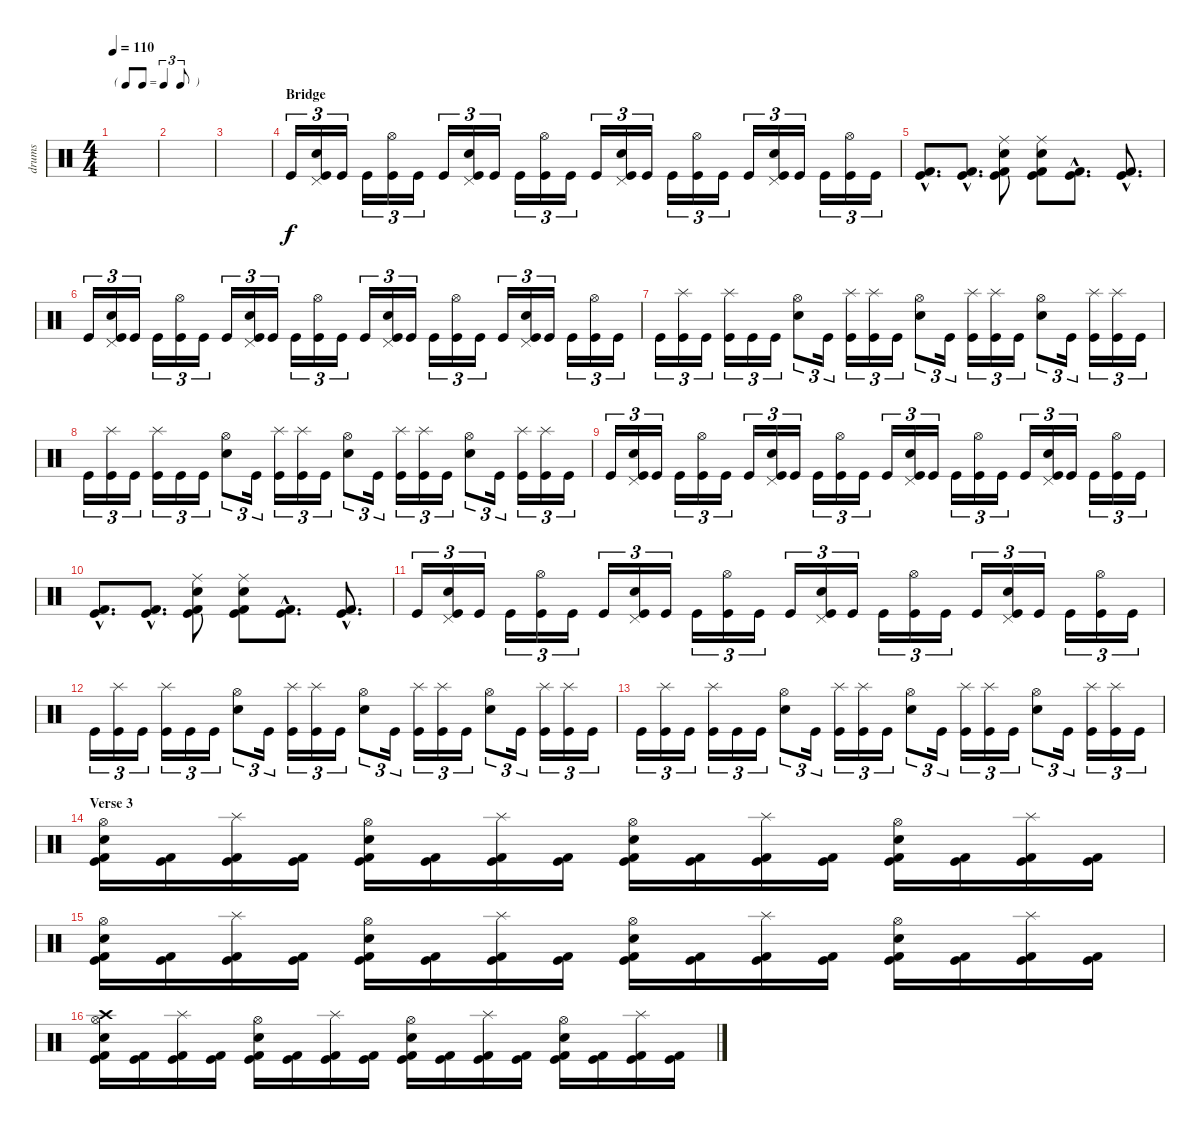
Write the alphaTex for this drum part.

\track ("drums" "drums") {instrument percussion}
\staff {score}
\articulation defaults
\ts (4 4)
\tf triplet8th
\tempo 110
\clef neutral
\ks c
|
|
|
\section ("" "Bridge")
"Kick (hit)".16{tu (3 2)} ("Pedal Hi-Hat (hit)" "Electric Snare (hit)" "Kick (hit)").16{tu (3 2)} "Kick (hit)".16{tu (3 2)} "Kick (hit)".16{tu (3 2)} ("Hi-Hat (open)" "Kick (hit)").16{tu (3 2)} "Kick (hit)".16{tu (3 2)} "Kick (hit)".16{tu (3 2)} ("Pedal Hi-Hat (hit)" "Electric Snare (hit)" "Kick (hit)").16{tu (3 2)} "Kick (hit)".16{tu (3 2)} "Kick (hit)".16{tu (3 2)} ("Hi-Hat (open)" "Kick (hit)").16{tu (3 2)} "Kick (hit)".16{tu (3 2)} "Kick (hit)".16{tu (3 2)} ("Pedal Hi-Hat (hit)" "Electric Snare (hit)" "Kick (hit)").16{tu (3 2)} "Kick (hit)".16{tu (3 2)} "Kick (hit)".16{tu (3 2)} ("Hi-Hat (open)" "Kick (hit)").16{tu (3 2)} "Kick (hit)".16{tu (3 2)} "Kick (hit)".16{tu (3 2)} ("Pedal Hi-Hat (hit)" "Electric Snare (hit)" "Kick (hit)").16{tu (3 2)} "Kick (hit)".16{tu (3 2)} "Kick (hit)".16{tu (3 2)} ("Hi-Hat (open)" "Kick (hit)").16{tu (3 2)} "Kick (hit)".16{tu (3 2)} |
("Kick (hit) 2"{hac} "Kick (hit)"{hac}).8{d} ("Kick (hit) 2"{hac} "Kick (hit)"{hac}).8{d} ("Ride (middle)" "Electric Snare (hit)" "Kick (hit)" "Kick (hit) 2").8 ("Ride (middle)" "Electric Snare (hit)" "Kick (hit)" "Kick (hit) 2").8 ("Kick (hit) 2"{hac} "Kick (hit)"{hac}).8{d} ("Kick (hit) 2"{hac} "Kick (hit)"{hac}).8{d} |
"Kick (hit)".16{tu (3 2)} ("Pedal Hi-Hat (hit)" "Electric Snare (hit)" "Kick (hit)").16{tu (3 2)} "Kick (hit)".16{tu (3 2)} "Kick (hit)".16{tu (3 2)} ("Hi-Hat (open)" "Kick (hit)").16{tu (3 2)} "Kick (hit)".16{tu (3 2)} "Kick (hit)".16{tu (3 2)} ("Pedal Hi-Hat (hit)" "Electric Snare (hit)" "Kick (hit)").16{tu (3 2)} "Kick (hit)".16{tu (3 2)} "Kick (hit)".16{tu (3 2)} ("Hi-Hat (open)" "Kick (hit)").16{tu (3 2)} "Kick (hit)".16{tu (3 2)} "Kick (hit)".16{tu (3 2)} ("Pedal Hi-Hat (hit)" "Electric Snare (hit)" "Kick (hit)").16{tu (3 2)} "Kick (hit)".16{tu (3 2)} "Kick (hit)".16{tu (3 2)} ("Hi-Hat (open)" "Kick (hit)").16{tu (3 2)} "Kick (hit)".16{tu (3 2)} "Kick (hit)".16{tu (3 2)} ("Pedal Hi-Hat (hit)" "Electric Snare (hit)" "Kick (hit)").16{tu (3 2)} "Kick (hit)".16{tu (3 2)} "Kick (hit)".16{tu (3 2)} ("Hi-Hat (open)" "Kick (hit)").16{tu (3 2)} "Kick (hit)".16{tu (3 2)} |
"Kick (hit)".16{tu (3 2)} ("Splash (hit)" "Kick (hit)").16{tu (3 2)} "Kick (hit)".16{tu (3 2)} ("Splash (hit)" "Kick (hit)").16{tu (3 2)} "Kick (hit)".16{tu (3 2)} "Kick (hit)".16{tu (3 2)} ("Hi-Hat (open)" "Electric Snare (hit)").8{tu (3 2)} "Kick (hit)".16{tu (3 2)} ("Splash (hit)" "Kick (hit)").16{tu (3 2)} ("Splash (hit)" "Kick (hit)").16{tu (3 2)} "Kick (hit)".16{tu (3 2)} ("Hi-Hat (open)" "Electric Snare (hit)").8{tu (3 2)} "Kick (hit)".16{tu (3 2)} ("Splash (hit)" "Kick (hit)").16{tu (3 2)} ("Splash (hit)" "Kick (hit)").16{tu (3 2)} "Kick (hit)".16{tu (3 2)} ("Hi-Hat (open)" "Electric Snare (hit)").8{tu (3 2)} "Kick (hit)".16{tu (3 2)} ("Splash (hit)" "Kick (hit)").16{tu (3 2)} ("Splash (hit)" "Kick (hit)").16{tu (3 2)} "Kick (hit)".16{tu (3 2)} |
"Kick (hit)".16{tu (3 2)} ("Splash (hit)" "Kick (hit)").16{tu (3 2)} "Kick (hit)".16{tu (3 2)} ("Splash (hit)" "Kick (hit)").16{tu (3 2)} "Kick (hit)".16{tu (3 2)} "Kick (hit)".16{tu (3 2)} ("Hi-Hat (open)" "Electric Snare (hit)").8{tu (3 2)} "Kick (hit)".16{tu (3 2)} ("Splash (hit)" "Kick (hit)").16{tu (3 2)} ("Splash (hit)" "Kick (hit)").16{tu (3 2)} "Kick (hit)".16{tu (3 2)} ("Hi-Hat (open)" "Electric Snare (hit)").8{tu (3 2)} "Kick (hit)".16{tu (3 2)} ("Splash (hit)" "Kick (hit)").16{tu (3 2)} ("Splash (hit)" "Kick (hit)").16{tu (3 2)} "Kick (hit)".16{tu (3 2)} ("Hi-Hat (open)" "Electric Snare (hit)").8{tu (3 2)} "Kick (hit)".16{tu (3 2)} ("Splash (hit)" "Kick (hit)").16{tu (3 2)} ("Splash (hit)" "Kick (hit)").16{tu (3 2)} "Kick (hit)".16{tu (3 2)} |
"Kick (hit)".16{tu (3 2)} ("Pedal Hi-Hat (hit)" "Electric Snare (hit)" "Kick (hit)").16{tu (3 2)} "Kick (hit)".16{tu (3 2)} "Kick (hit)".16{tu (3 2)} ("Hi-Hat (open)" "Kick (hit)").16{tu (3 2)} "Kick (hit)".16{tu (3 2)} "Kick (hit)".16{tu (3 2)} ("Pedal Hi-Hat (hit)" "Electric Snare (hit)" "Kick (hit)").16{tu (3 2)} "Kick (hit)".16{tu (3 2)} "Kick (hit)".16{tu (3 2)} ("Hi-Hat (open)" "Kick (hit)").16{tu (3 2)} "Kick (hit)".16{tu (3 2)} "Kick (hit)".16{tu (3 2)} ("Pedal Hi-Hat (hit)" "Electric Snare (hit)" "Kick (hit)").16{tu (3 2)} "Kick (hit)".16{tu (3 2)} "Kick (hit)".16{tu (3 2)} ("Hi-Hat (open)" "Kick (hit)").16{tu (3 2)} "Kick (hit)".16{tu (3 2)} "Kick (hit)".16{tu (3 2)} ("Pedal Hi-Hat (hit)" "Electric Snare (hit)" "Kick (hit)").16{tu (3 2)} "Kick (hit)".16{tu (3 2)} "Kick (hit)".16{tu (3 2)} ("Hi-Hat (open)" "Kick (hit)").16{tu (3 2)} "Kick (hit)".16{tu (3 2)} |
("Kick (hit) 2"{hac} "Kick (hit)"{hac}).8{d} ("Kick (hit) 2"{hac} "Kick (hit)"{hac}).8{d} ("Ride (middle)" "Electric Snare (hit)" "Kick (hit)" "Kick (hit) 2").8 ("Ride (middle)" "Electric Snare (hit)" "Kick (hit)" "Kick (hit) 2").8 ("Kick (hit) 2"{hac} "Kick (hit)"{hac}).8{d} ("Kick (hit) 2"{hac} "Kick (hit)"{hac}).8{d} |
"Kick (hit)".16{tu (3 2)} ("Pedal Hi-Hat (hit)" "Electric Snare (hit)" "Kick (hit)").16{tu (3 2)} "Kick (hit)".16{tu (3 2)} "Kick (hit)".16{tu (3 2)} ("Hi-Hat (open)" "Kick (hit)").16{tu (3 2)} "Kick (hit)".16{tu (3 2)} "Kick (hit)".16{tu (3 2)} ("Pedal Hi-Hat (hit)" "Electric Snare (hit)" "Kick (hit)").16{tu (3 2)} "Kick (hit)".16{tu (3 2)} "Kick (hit)".16{tu (3 2)} ("Hi-Hat (open)" "Kick (hit)").16{tu (3 2)} "Kick (hit)".16{tu (3 2)} "Kick (hit)".16{tu (3 2)} ("Pedal Hi-Hat (hit)" "Electric Snare (hit)" "Kick (hit)").16{tu (3 2)} "Kick (hit)".16{tu (3 2)} "Kick (hit)".16{tu (3 2)} ("Hi-Hat (open)" "Kick (hit)").16{tu (3 2)} "Kick (hit)".16{tu (3 2)} "Kick (hit)".16{tu (3 2)} ("Pedal Hi-Hat (hit)" "Electric Snare (hit)" "Kick (hit)").16{tu (3 2)} "Kick (hit)".16{tu (3 2)} "Kick (hit)".16{tu (3 2)} ("Hi-Hat (open)" "Kick (hit)").16{tu (3 2)} "Kick (hit)".16{tu (3 2)} |
"Kick (hit)".16{tu (3 2)} ("Splash (hit)" "Kick (hit)").16{tu (3 2)} "Kick (hit)".16{tu (3 2)} ("Splash (hit)" "Kick (hit)").16{tu (3 2)} "Kick (hit)".16{tu (3 2)} "Kick (hit)".16{tu (3 2)} ("Hi-Hat (open)" "Electric Snare (hit)").8{tu (3 2)} "Kick (hit)".16{tu (3 2)} ("Splash (hit)" "Kick (hit)").16{tu (3 2)} ("Splash (hit)" "Kick (hit)").16{tu (3 2)} "Kick (hit)".16{tu (3 2)} ("Hi-Hat (open)" "Electric Snare (hit)").8{tu (3 2)} "Kick (hit)".16{tu (3 2)} ("Splash (hit)" "Kick (hit)").16{tu (3 2)} ("Splash (hit)" "Kick (hit)").16{tu (3 2)} "Kick (hit)".16{tu (3 2)} ("Hi-Hat (open)" "Electric Snare (hit)").8{tu (3 2)} "Kick (hit)".16{tu (3 2)} ("Splash (hit)" "Kick (hit)").16{tu (3 2)} ("Splash (hit)" "Kick (hit)").16{tu (3 2)} "Kick (hit)".16{tu (3 2)} |
"Kick (hit)".16{tu (3 2)} ("Splash (hit)" "Kick (hit)").16{tu (3 2)} "Kick (hit)".16{tu (3 2)} ("Splash (hit)" "Kick (hit)").16{tu (3 2)} "Kick (hit)".16{tu (3 2)} "Kick (hit)".16{tu (3 2)} ("Hi-Hat (open)" "Electric Snare (hit)").8{tu (3 2)} "Kick (hit)".16{tu (3 2)} ("Splash (hit)" "Kick (hit)").16{tu (3 2)} ("Splash (hit)" "Kick (hit)").16{tu (3 2)} "Kick (hit)".16{tu (3 2)} ("Hi-Hat (open)" "Electric Snare (hit)").8{tu (3 2)} "Kick (hit)".16{tu (3 2)} ("Splash (hit)" "Kick (hit)").16{tu (3 2)} ("Splash (hit)" "Kick (hit)").16{tu (3 2)} "Kick (hit)".16{tu (3 2)} ("Hi-Hat (open)" "Electric Snare (hit)").8{tu (3 2)} "Kick (hit)".16{tu (3 2)} ("Splash (hit)" "Kick (hit)").16{tu (3 2)} ("Splash (hit)" "Kick (hit)").16{tu (3 2)} "Kick (hit)".16{tu (3 2)} |
\section ("" "Verse 3")
("Hi-Hat (open)" "Snare (hit) 2" "Kick (hit) 2" "Kick (hit)").16 ("Kick (hit) 2" "Kick (hit)").16 ("Splash (hit)" "Kick (hit) 2" "Kick (hit)").16 ("Kick (hit) 2" "Kick (hit)").16 ("Hi-Hat (open)" "Snare (hit) 2" "Kick (hit) 2" "Kick (hit)").16 ("Kick (hit) 2" "Kick (hit)").16 ("Splash (hit)" "Kick (hit) 2" "Kick (hit)").16 ("Kick (hit) 2" "Kick (hit)").16 ("Hi-Hat (open)" "Snare (hit) 2" "Kick (hit) 2" "Kick (hit)").16 ("Kick (hit) 2" "Kick (hit)").16 ("Splash (hit)" "Kick (hit) 2" "Kick (hit)").16 ("Kick (hit) 2" "Kick (hit)").16 ("Hi-Hat (open)" "Snare (hit) 2" "Kick (hit) 2" "Kick (hit)").16 ("Kick (hit) 2" "Kick (hit)").16 ("Splash (hit)" "Kick (hit) 2" "Kick (hit)").16 ("Kick (hit) 2" "Kick (hit)").16 |
("Hi-Hat (open)" "Snare (hit) 2" "Kick (hit) 2" "Kick (hit)").16 ("Kick (hit) 2" "Kick (hit)").16 ("Splash (hit)" "Kick (hit) 2" "Kick (hit)").16 ("Kick (hit) 2" "Kick (hit)").16 ("Hi-Hat (open)" "Snare (hit) 2" "Kick (hit) 2" "Kick (hit)").16 ("Kick (hit) 2" "Kick (hit)").16 ("Splash (hit)" "Kick (hit) 2" "Kick (hit)").16 ("Kick (hit) 2" "Kick (hit)").16 ("Hi-Hat (open)" "Snare (hit) 2" "Kick (hit) 2" "Kick (hit)").16 ("Kick (hit) 2" "Kick (hit)").16 ("Splash (hit)" "Kick (hit) 2" "Kick (hit)").16 ("Kick (hit) 2" "Kick (hit)").16 ("Hi-Hat (open)" "Snare (hit) 2" "Kick (hit) 2" "Kick (hit)").16 ("Kick (hit) 2" "Kick (hit)").16 ("Splash (hit)" "Kick (hit) 2" "Kick (hit)").16 ("Kick (hit) 2" "Kick (hit)").16 |
("Crash high (hit)" "Hi-Hat (open)" "Snare (hit) 2" "Kick (hit) 2" "Kick (hit)").16 ("Kick (hit) 2" "Kick (hit)").16 ("Splash (hit)" "Kick (hit) 2" "Kick (hit)").16 ("Kick (hit) 2" "Kick (hit)").16 ("Hi-Hat (open)" "Snare (hit) 2" "Kick (hit) 2" "Kick (hit)").16 ("Kick (hit) 2" "Kick (hit)").16 ("Splash (hit)" "Kick (hit) 2" "Kick (hit)").16 ("Kick (hit) 2" "Kick (hit)").16 ("Hi-Hat (open)" "Snare (hit) 2" "Kick (hit) 2" "Kick (hit)").16 ("Kick (hit) 2" "Kick (hit)").16 ("Splash (hit)" "Kick (hit) 2" "Kick (hit)").16 ("Kick (hit) 2" "Kick (hit)").16 ("Hi-Hat (open)" "Snare (hit) 2" "Kick (hit) 2" "Kick (hit)").16 ("Kick (hit) 2" "Kick (hit)").16 ("Splash (hit)" "Kick (hit) 2" "Kick (hit)").16 ("Kick (hit) 2" "Kick (hit)").16
